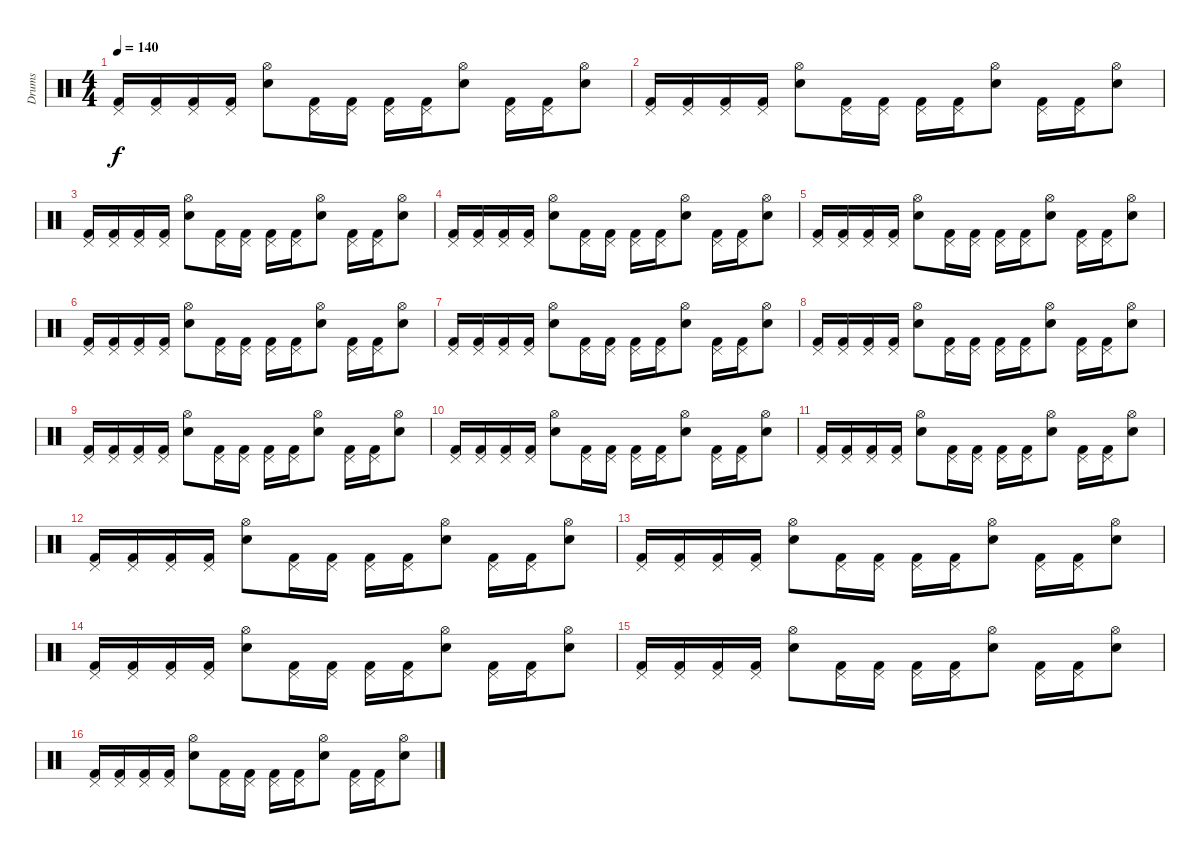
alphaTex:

\track ("Drums" "Drums") {instrument percussion}
\staff {score}
\articulation defaults
\ts (4 4)
\tempo 140
\clef neutral
\ks c
("Pedal Hi-Hat (hit)" "Kick (hit) 2").16{dy f} ("Pedal Hi-Hat (hit)" "Kick (hit) 2").16 ("Pedal Hi-Hat (hit)" "Kick (hit) 2").16 ("Pedal Hi-Hat (hit)" "Kick (hit) 2").16 ("Hi-Hat (open)" "Electric Snare (hit)").8 ("Pedal Hi-Hat (hit)" "Kick (hit) 2").16 ("Pedal Hi-Hat (hit)" "Kick (hit) 2").16 ("Pedal Hi-Hat (hit)" "Kick (hit) 2").16 ("Pedal Hi-Hat (hit)" "Kick (hit) 2").16 ("Hi-Hat (open)" "Electric Snare (hit)").8 ("Pedal Hi-Hat (hit)" "Kick (hit) 2").16 ("Pedal Hi-Hat (hit)" "Kick (hit) 2").16 ("Hi-Hat (open)" "Electric Snare (hit)").8 |
("Pedal Hi-Hat (hit)" "Kick (hit) 2").16 ("Pedal Hi-Hat (hit)" "Kick (hit) 2").16 ("Pedal Hi-Hat (hit)" "Kick (hit) 2").16 ("Pedal Hi-Hat (hit)" "Kick (hit) 2").16 ("Hi-Hat (open)" "Electric Snare (hit)").8 ("Pedal Hi-Hat (hit)" "Kick (hit) 2").16 ("Pedal Hi-Hat (hit)" "Kick (hit) 2").16 ("Pedal Hi-Hat (hit)" "Kick (hit) 2").16 ("Pedal Hi-Hat (hit)" "Kick (hit) 2").16 ("Hi-Hat (open)" "Electric Snare (hit)").8 ("Pedal Hi-Hat (hit)" "Kick (hit) 2").16 ("Pedal Hi-Hat (hit)" "Kick (hit) 2").16 ("Hi-Hat (open)" "Electric Snare (hit)").8 |
("Pedal Hi-Hat (hit)" "Kick (hit) 2").16 ("Pedal Hi-Hat (hit)" "Kick (hit) 2").16 ("Pedal Hi-Hat (hit)" "Kick (hit) 2").16 ("Pedal Hi-Hat (hit)" "Kick (hit) 2").16 ("Hi-Hat (open)" "Electric Snare (hit)").8 ("Pedal Hi-Hat (hit)" "Kick (hit) 2").16 ("Pedal Hi-Hat (hit)" "Kick (hit) 2").16 ("Pedal Hi-Hat (hit)" "Kick (hit) 2").16 ("Pedal Hi-Hat (hit)" "Kick (hit) 2").16 ("Hi-Hat (open)" "Electric Snare (hit)").8 ("Pedal Hi-Hat (hit)" "Kick (hit) 2").16 ("Pedal Hi-Hat (hit)" "Kick (hit) 2").16 ("Hi-Hat (open)" "Electric Snare (hit)").8 |
("Pedal Hi-Hat (hit)" "Kick (hit) 2").16 ("Pedal Hi-Hat (hit)" "Kick (hit) 2").16 ("Pedal Hi-Hat (hit)" "Kick (hit) 2").16 ("Pedal Hi-Hat (hit)" "Kick (hit) 2").16 ("Hi-Hat (open)" "Electric Snare (hit)").8 ("Pedal Hi-Hat (hit)" "Kick (hit) 2").16 ("Pedal Hi-Hat (hit)" "Kick (hit) 2").16 ("Pedal Hi-Hat (hit)" "Kick (hit) 2").16 ("Pedal Hi-Hat (hit)" "Kick (hit) 2").16 ("Hi-Hat (open)" "Electric Snare (hit)").8 ("Pedal Hi-Hat (hit)" "Kick (hit) 2").16 ("Pedal Hi-Hat (hit)" "Kick (hit) 2").16 ("Hi-Hat (open)" "Electric Snare (hit)").8 |
("Pedal Hi-Hat (hit)" "Kick (hit) 2").16 ("Pedal Hi-Hat (hit)" "Kick (hit) 2").16 ("Pedal Hi-Hat (hit)" "Kick (hit) 2").16 ("Pedal Hi-Hat (hit)" "Kick (hit) 2").16 ("Hi-Hat (open)" "Electric Snare (hit)").8 ("Pedal Hi-Hat (hit)" "Kick (hit) 2").16 ("Pedal Hi-Hat (hit)" "Kick (hit) 2").16 ("Pedal Hi-Hat (hit)" "Kick (hit) 2").16 ("Pedal Hi-Hat (hit)" "Kick (hit) 2").16 ("Hi-Hat (open)" "Electric Snare (hit)").8 ("Pedal Hi-Hat (hit)" "Kick (hit) 2").16 ("Pedal Hi-Hat (hit)" "Kick (hit) 2").16 ("Hi-Hat (open)" "Electric Snare (hit)").8 |
("Pedal Hi-Hat (hit)" "Kick (hit) 2").16 ("Pedal Hi-Hat (hit)" "Kick (hit) 2").16 ("Pedal Hi-Hat (hit)" "Kick (hit) 2").16 ("Pedal Hi-Hat (hit)" "Kick (hit) 2").16 ("Hi-Hat (open)" "Electric Snare (hit)").8 ("Pedal Hi-Hat (hit)" "Kick (hit) 2").16 ("Pedal Hi-Hat (hit)" "Kick (hit) 2").16 ("Pedal Hi-Hat (hit)" "Kick (hit) 2").16 ("Pedal Hi-Hat (hit)" "Kick (hit) 2").16 ("Hi-Hat (open)" "Electric Snare (hit)").8 ("Pedal Hi-Hat (hit)" "Kick (hit) 2").16 ("Pedal Hi-Hat (hit)" "Kick (hit) 2").16 ("Hi-Hat (open)" "Electric Snare (hit)").8 |
("Pedal Hi-Hat (hit)" "Kick (hit) 2").16 ("Pedal Hi-Hat (hit)" "Kick (hit) 2").16 ("Pedal Hi-Hat (hit)" "Kick (hit) 2").16 ("Pedal Hi-Hat (hit)" "Kick (hit) 2").16 ("Hi-Hat (open)" "Electric Snare (hit)").8 ("Pedal Hi-Hat (hit)" "Kick (hit) 2").16 ("Pedal Hi-Hat (hit)" "Kick (hit) 2").16 ("Pedal Hi-Hat (hit)" "Kick (hit) 2").16 ("Pedal Hi-Hat (hit)" "Kick (hit) 2").16 ("Hi-Hat (open)" "Electric Snare (hit)").8 ("Pedal Hi-Hat (hit)" "Kick (hit) 2").16 ("Pedal Hi-Hat (hit)" "Kick (hit) 2").16 ("Hi-Hat (open)" "Electric Snare (hit)").8 |
("Pedal Hi-Hat (hit)" "Kick (hit) 2").16 ("Pedal Hi-Hat (hit)" "Kick (hit) 2").16 ("Pedal Hi-Hat (hit)" "Kick (hit) 2").16 ("Pedal Hi-Hat (hit)" "Kick (hit) 2").16 ("Hi-Hat (open)" "Electric Snare (hit)").8 ("Pedal Hi-Hat (hit)" "Kick (hit) 2").16 ("Pedal Hi-Hat (hit)" "Kick (hit) 2").16 ("Pedal Hi-Hat (hit)" "Kick (hit) 2").16 ("Pedal Hi-Hat (hit)" "Kick (hit) 2").16 ("Hi-Hat (open)" "Electric Snare (hit)").8 ("Pedal Hi-Hat (hit)" "Kick (hit) 2").16 ("Pedal Hi-Hat (hit)" "Kick (hit) 2").16 ("Hi-Hat (open)" "Electric Snare (hit)").8 |
("Pedal Hi-Hat (hit)" "Kick (hit) 2").16 ("Pedal Hi-Hat (hit)" "Kick (hit) 2").16 ("Pedal Hi-Hat (hit)" "Kick (hit) 2").16 ("Pedal Hi-Hat (hit)" "Kick (hit) 2").16 ("Hi-Hat (open)" "Electric Snare (hit)").8 ("Pedal Hi-Hat (hit)" "Kick (hit) 2").16 ("Pedal Hi-Hat (hit)" "Kick (hit) 2").16 ("Pedal Hi-Hat (hit)" "Kick (hit) 2").16 ("Pedal Hi-Hat (hit)" "Kick (hit) 2").16 ("Hi-Hat (open)" "Electric Snare (hit)").8 ("Pedal Hi-Hat (hit)" "Kick (hit) 2").16 ("Pedal Hi-Hat (hit)" "Kick (hit) 2").16 ("Hi-Hat (open)" "Electric Snare (hit)").8 |
("Pedal Hi-Hat (hit)" "Kick (hit) 2").16 ("Pedal Hi-Hat (hit)" "Kick (hit) 2").16 ("Pedal Hi-Hat (hit)" "Kick (hit) 2").16 ("Pedal Hi-Hat (hit)" "Kick (hit) 2").16 ("Hi-Hat (open)" "Electric Snare (hit)").8 ("Pedal Hi-Hat (hit)" "Kick (hit) 2").16 ("Pedal Hi-Hat (hit)" "Kick (hit) 2").16 ("Pedal Hi-Hat (hit)" "Kick (hit) 2").16 ("Pedal Hi-Hat (hit)" "Kick (hit) 2").16 ("Hi-Hat (open)" "Electric Snare (hit)").8 ("Pedal Hi-Hat (hit)" "Kick (hit) 2").16 ("Pedal Hi-Hat (hit)" "Kick (hit) 2").16 ("Hi-Hat (open)" "Electric Snare (hit)").8 |
("Pedal Hi-Hat (hit)" "Kick (hit) 2").16 ("Pedal Hi-Hat (hit)" "Kick (hit) 2").16 ("Pedal Hi-Hat (hit)" "Kick (hit) 2").16 ("Pedal Hi-Hat (hit)" "Kick (hit) 2").16 ("Hi-Hat (open)" "Electric Snare (hit)").8 ("Pedal Hi-Hat (hit)" "Kick (hit) 2").16 ("Pedal Hi-Hat (hit)" "Kick (hit) 2").16 ("Pedal Hi-Hat (hit)" "Kick (hit) 2").16 ("Pedal Hi-Hat (hit)" "Kick (hit) 2").16 ("Hi-Hat (open)" "Electric Snare (hit)").8 ("Pedal Hi-Hat (hit)" "Kick (hit) 2").16 ("Pedal Hi-Hat (hit)" "Kick (hit) 2").16 ("Hi-Hat (open)" "Electric Snare (hit)").8 |
("Pedal Hi-Hat (hit)" "Kick (hit) 2").16 ("Pedal Hi-Hat (hit)" "Kick (hit) 2").16 ("Pedal Hi-Hat (hit)" "Kick (hit) 2").16 ("Pedal Hi-Hat (hit)" "Kick (hit) 2").16 ("Hi-Hat (open)" "Electric Snare (hit)").8 ("Pedal Hi-Hat (hit)" "Kick (hit) 2").16 ("Pedal Hi-Hat (hit)" "Kick (hit) 2").16 ("Pedal Hi-Hat (hit)" "Kick (hit) 2").16 ("Pedal Hi-Hat (hit)" "Kick (hit) 2").16 ("Hi-Hat (open)" "Electric Snare (hit)").8 ("Pedal Hi-Hat (hit)" "Kick (hit) 2").16 ("Pedal Hi-Hat (hit)" "Kick (hit) 2").16 ("Hi-Hat (open)" "Electric Snare (hit)").8 |
("Pedal Hi-Hat (hit)" "Kick (hit) 2").16 ("Pedal Hi-Hat (hit)" "Kick (hit) 2").16 ("Pedal Hi-Hat (hit)" "Kick (hit) 2").16 ("Pedal Hi-Hat (hit)" "Kick (hit) 2").16 ("Hi-Hat (open)" "Electric Snare (hit)").8 ("Pedal Hi-Hat (hit)" "Kick (hit) 2").16 ("Pedal Hi-Hat (hit)" "Kick (hit) 2").16 ("Pedal Hi-Hat (hit)" "Kick (hit) 2").16 ("Pedal Hi-Hat (hit)" "Kick (hit) 2").16 ("Hi-Hat (open)" "Electric Snare (hit)").8 ("Pedal Hi-Hat (hit)" "Kick (hit) 2").16 ("Pedal Hi-Hat (hit)" "Kick (hit) 2").16 ("Hi-Hat (open)" "Electric Snare (hit)").8 |
("Pedal Hi-Hat (hit)" "Kick (hit) 2").16 ("Pedal Hi-Hat (hit)" "Kick (hit) 2").16 ("Pedal Hi-Hat (hit)" "Kick (hit) 2").16 ("Pedal Hi-Hat (hit)" "Kick (hit) 2").16 ("Hi-Hat (open)" "Electric Snare (hit)").8 ("Pedal Hi-Hat (hit)" "Kick (hit) 2").16 ("Pedal Hi-Hat (hit)" "Kick (hit) 2").16 ("Pedal Hi-Hat (hit)" "Kick (hit) 2").16 ("Pedal Hi-Hat (hit)" "Kick (hit) 2").16 ("Hi-Hat (open)" "Electric Snare (hit)").8 ("Pedal Hi-Hat (hit)" "Kick (hit) 2").16 ("Pedal Hi-Hat (hit)" "Kick (hit) 2").16 ("Hi-Hat (open)" "Electric Snare (hit)").8 |
("Pedal Hi-Hat (hit)" "Kick (hit) 2").16 ("Pedal Hi-Hat (hit)" "Kick (hit) 2").16 ("Pedal Hi-Hat (hit)" "Kick (hit) 2").16 ("Pedal Hi-Hat (hit)" "Kick (hit) 2").16 ("Hi-Hat (open)" "Electric Snare (hit)").8 ("Pedal Hi-Hat (hit)" "Kick (hit) 2").16 ("Pedal Hi-Hat (hit)" "Kick (hit) 2").16 ("Pedal Hi-Hat (hit)" "Kick (hit) 2").16 ("Pedal Hi-Hat (hit)" "Kick (hit) 2").16 ("Hi-Hat (open)" "Electric Snare (hit)").8 ("Pedal Hi-Hat (hit)" "Kick (hit) 2").16 ("Pedal Hi-Hat (hit)" "Kick (hit) 2").16 ("Hi-Hat (open)" "Electric Snare (hit)").8 |
("Pedal Hi-Hat (hit)" "Kick (hit) 2").16 ("Pedal Hi-Hat (hit)" "Kick (hit) 2").16 ("Pedal Hi-Hat (hit)" "Kick (hit) 2").16 ("Pedal Hi-Hat (hit)" "Kick (hit) 2").16 ("Hi-Hat (open)" "Electric Snare (hit)").8 ("Pedal Hi-Hat (hit)" "Kick (hit) 2").16 ("Pedal Hi-Hat (hit)" "Kick (hit) 2").16 ("Pedal Hi-Hat (hit)" "Kick (hit) 2").16 ("Pedal Hi-Hat (hit)" "Kick (hit) 2").16 ("Hi-Hat (open)" "Electric Snare (hit)").8 ("Pedal Hi-Hat (hit)" "Kick (hit) 2").16 ("Pedal Hi-Hat (hit)" "Kick (hit) 2").16 ("Hi-Hat (open)" "Electric Snare (hit)").8
